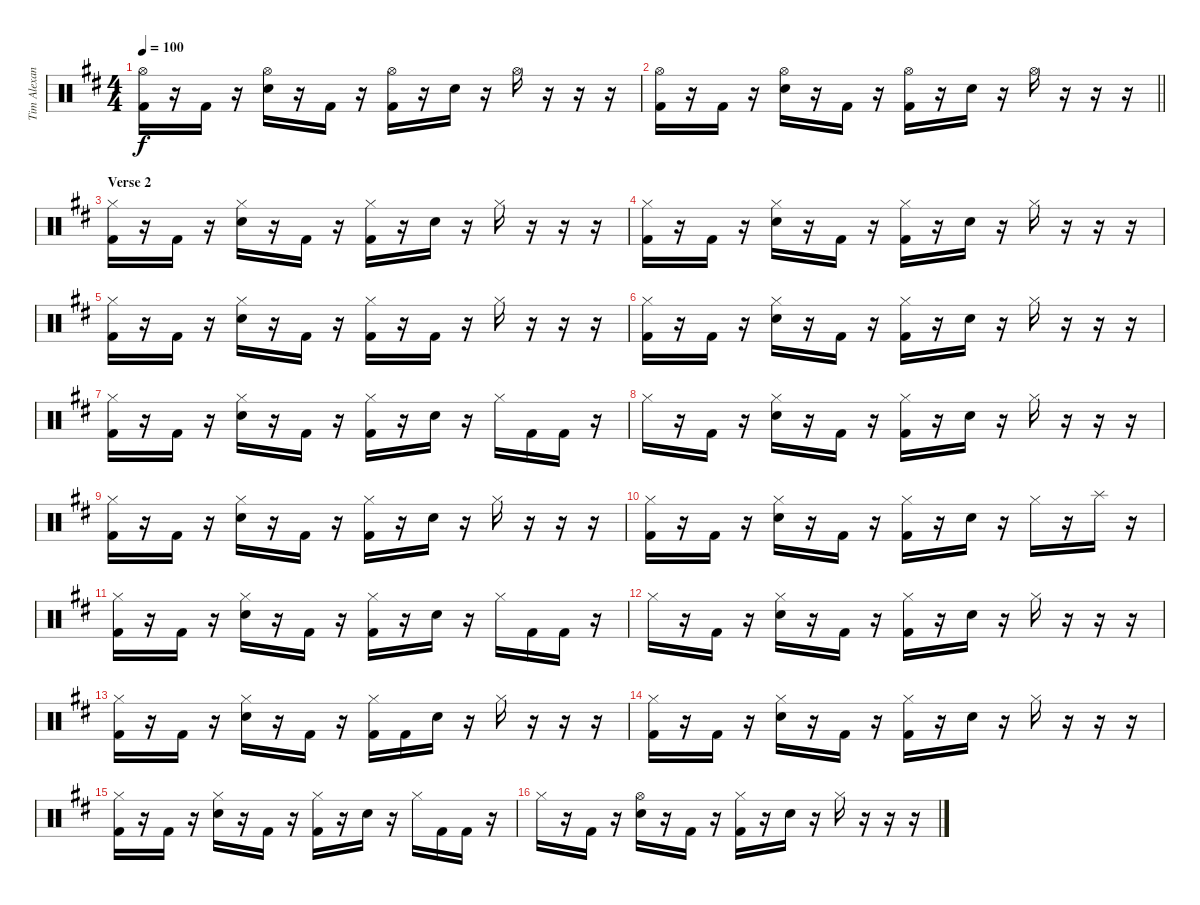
\track ("Tim Alexander" "Tim Alexan") {instrument percussion}
\staff {score}
\articulation defaults
\ts (4 4)
\tempo 100
\clef neutral
\ks d
("Hi-Hat (open)" "Kick (hit) 2").16{dy f} r.16 "Kick (hit) 2".16 r.16 ("Hi-Hat (open)" "Snare (hit) 2").16 r.16 "Kick (hit) 2".16 r.16 ("Hi-Hat (open)" "Kick (hit) 2").16 r.16 "Snare (hit) 2".16 r.16 "Hi-Hat (open)".16 r.16 r.16 r.16 |
\barLineRight lightlight
("Hi-Hat (open)" "Kick (hit) 2").16 r.16 "Kick (hit) 2".16 r.16 ("Hi-Hat (open)" "Snare (hit) 2").16 r.16 "Kick (hit) 2".16 r.16 ("Hi-Hat (open)" "Kick (hit) 2").16 r.16 "Snare (hit) 2".16 r.16 "Hi-Hat (open)".16 r.16 r.16 r.16 |
\section ("" "Verse 2")
("Hi-Hat (closed)" "Kick (hit) 2").16 r.16 "Kick (hit) 2".16 r.16 ("Hi-Hat (closed)" "Snare (hit) 2").16 r.16 "Kick (hit) 2".16 r.16 ("Hi-Hat (closed)" "Kick (hit) 2").16 r.16 "Snare (hit) 2".16 r.16 "Hi-Hat (closed)".16 r.16 r.16 r.16 |
("Hi-Hat (closed)" "Kick (hit) 2").16 r.16 "Kick (hit) 2".16 r.16 ("Hi-Hat (closed)" "Snare (hit) 2").16 r.16 "Kick (hit) 2".16 r.16 ("Hi-Hat (closed)" "Kick (hit) 2").16 r.16 "Snare (hit) 2".16 r.16 "Hi-Hat (closed)".16 r.16 r.16 r.16 |
("Hi-Hat (closed)" "Kick (hit) 2").16 r.16 "Kick (hit) 2".16 r.16 ("Hi-Hat (closed)" "Snare (hit) 2").16 r.16 "Kick (hit) 2".16 r.16 ("Hi-Hat (closed)" "Kick (hit) 2").16 r.16 "Kick (hit) 2".16 r.16 "Hi-Hat (closed)".16 r.16 r.16 r.16 |
("Hi-Hat (closed)" "Kick (hit) 2").16 r.16 "Kick (hit) 2".16 r.16 ("Hi-Hat (closed)" "Snare (hit) 2").16 r.16 "Kick (hit) 2".16 r.16 ("Hi-Hat (closed)" "Kick (hit) 2").16 r.16 "Snare (hit) 2".16 r.16 "Hi-Hat (closed)".16 r.16 r.16 r.16 |
("Hi-Hat (closed)" "Kick (hit) 2").16 r.16 "Kick (hit) 2".16 r.16 ("Hi-Hat (closed)" "Snare (hit) 2").16 r.16 "Kick (hit) 2".16 r.16 ("Hi-Hat (closed)" "Kick (hit) 2").16 r.16 "Snare (hit) 2".16 r.16 "Hi-Hat (closed)".16 "Kick (hit) 2".16 "Kick (hit) 2".16 r.16 |
"Hi-Hat (closed)".16 r.16 "Kick (hit) 2".16 r.16 ("Hi-Hat (closed)" "Snare (hit) 2").16 r.16 "Kick (hit) 2".16 r.16 ("Hi-Hat (closed)" "Kick (hit) 2").16 r.16 "Snare (hit) 2".16 r.16 "Hi-Hat (closed)".16 r.16 r.16 r.16 |
("Hi-Hat (closed)" "Kick (hit) 2").16 r.16 "Kick (hit) 2".16 r.16 ("Hi-Hat (closed)" "Snare (hit) 2").16 r.16 "Kick (hit) 2".16 r.16 ("Hi-Hat (closed)" "Kick (hit) 2").16 r.16 "Snare (hit) 2".16 r.16 "Hi-Hat (closed)".16 r.16 r.16 r.16 |
("Hi-Hat (closed)" "Kick (hit) 2").16 r.16 "Kick (hit) 2".16 r.16 ("Hi-Hat (closed)" "Snare (hit) 2").16 r.16 "Kick (hit) 2".16 r.16 ("Hi-Hat (closed)" "Kick (hit) 2").16 r.16 "Snare (hit) 2".16 r.16 "Hi-Hat (closed)".16 r.16 "Splash (hit)".16 r.16 |
("Hi-Hat (closed)" "Kick (hit) 2").16 r.16 "Kick (hit) 2".16 r.16 ("Hi-Hat (closed)" "Snare (hit) 2").16 r.16 "Kick (hit) 2".16 r.16 ("Hi-Hat (closed)" "Kick (hit) 2").16 r.16 "Snare (hit) 2".16 r.16 "Hi-Hat (closed)".16 "Kick (hit) 2".16 "Kick (hit) 2".16 r.16 |
"Hi-Hat (closed)".16 r.16 "Kick (hit) 2".16 r.16 ("Hi-Hat (closed)" "Snare (hit) 2").16 r.16 "Kick (hit) 2".16 r.16 ("Hi-Hat (closed)" "Kick (hit) 2").16 r.16 "Snare (hit) 2".16 r.16 "Hi-Hat (closed)".16 r.16 r.16 r.16 |
("Hi-Hat (closed)" "Kick (hit) 2").16 r.16 "Kick (hit) 2".16 r.16 ("Hi-Hat (closed)" "Snare (hit) 2").16 r.16 "Kick (hit) 2".16 r.16 ("Hi-Hat (closed)" "Kick (hit) 2").16 "Kick (hit) 2".16 "Snare (hit) 2".16 r.16 "Hi-Hat (closed)".16 r.16 r.16 r.16 |
("Hi-Hat (closed)" "Kick (hit) 2").16 r.16 "Kick (hit) 2".16 r.16 ("Hi-Hat (closed)" "Snare (hit) 2").16 r.16 "Kick (hit) 2".16 r.16 ("Hi-Hat (closed)" "Kick (hit) 2").16 r.16 "Snare (hit) 2".16 r.16 "Hi-Hat (closed)".16 r.16 r.16 r.16 |
("Hi-Hat (closed)" "Kick (hit) 2").16 r.16 "Kick (hit) 2".16 r.16 ("Hi-Hat (closed)" "Snare (hit) 2").16 r.16 "Kick (hit) 2".16 r.16 ("Hi-Hat (closed)" "Kick (hit) 2").16 r.16 "Snare (hit) 2".16 r.16 "Hi-Hat (closed)".16 "Kick (hit) 2".16 "Kick (hit) 2".16 r.16 |
"Hi-Hat (closed)".16 r.16 "Kick (hit) 2".16 r.16 ("Hi-Hat (open)" "Snare (hit) 2").16 r.16 "Kick (hit) 2".16 r.16 ("Hi-Hat (closed)" "Kick (hit) 2").16 r.16 "Snare (hit) 2".16 r.16 "Hi-Hat (closed)".16 r.16 r.16 r.16
